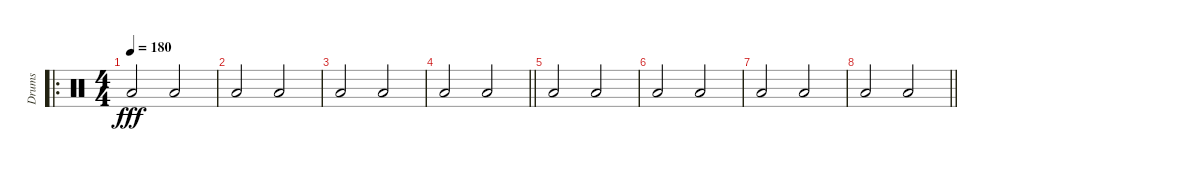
\track ("Drums" "Drums") {instrument percussion}
\staff {score}
\articulation defaults
\ro
\ts (4 4)
\tempo 180
\clef neutral
\ks c "Low Floor Tom (hit)".2{dy fff} "Low Floor Tom (hit)".2
|
"Low Floor Tom (hit)".2 "Low Floor Tom (hit)".2 |
"Low Floor Tom (hit)".2 "Low Floor Tom (hit)".2 |
\barLineRight lightlight "Low Floor Tom (hit)".2 "Low Floor Tom (hit)".2
|
"Low Floor Tom (hit)".2 "Low Floor Tom (hit)".2 |
"Low Floor Tom (hit)".2 "Low Floor Tom (hit)".2 |
"Low Floor Tom (hit)".2 "Low Floor Tom (hit)".2 |
\barLineRight lightlight "Low Floor Tom (hit)".2 "Low Floor Tom (hit)".2
